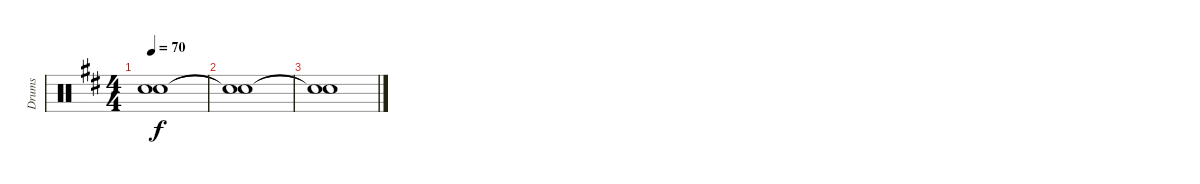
\track ("Drums" "Drums") {instrument percussion}
\staff {score}
\articulation defaults
\ts (4 4)
\tempo 70
\clef neutral
\ks d
("Snare (hit)"{t} "Snare (hit)"{t}).1{dy f} |
("Snare (hit)"{t} "Snare (hit)"{t}).1 |
("Snare (hit)"{t} "Snare (hit)"{t}).1
